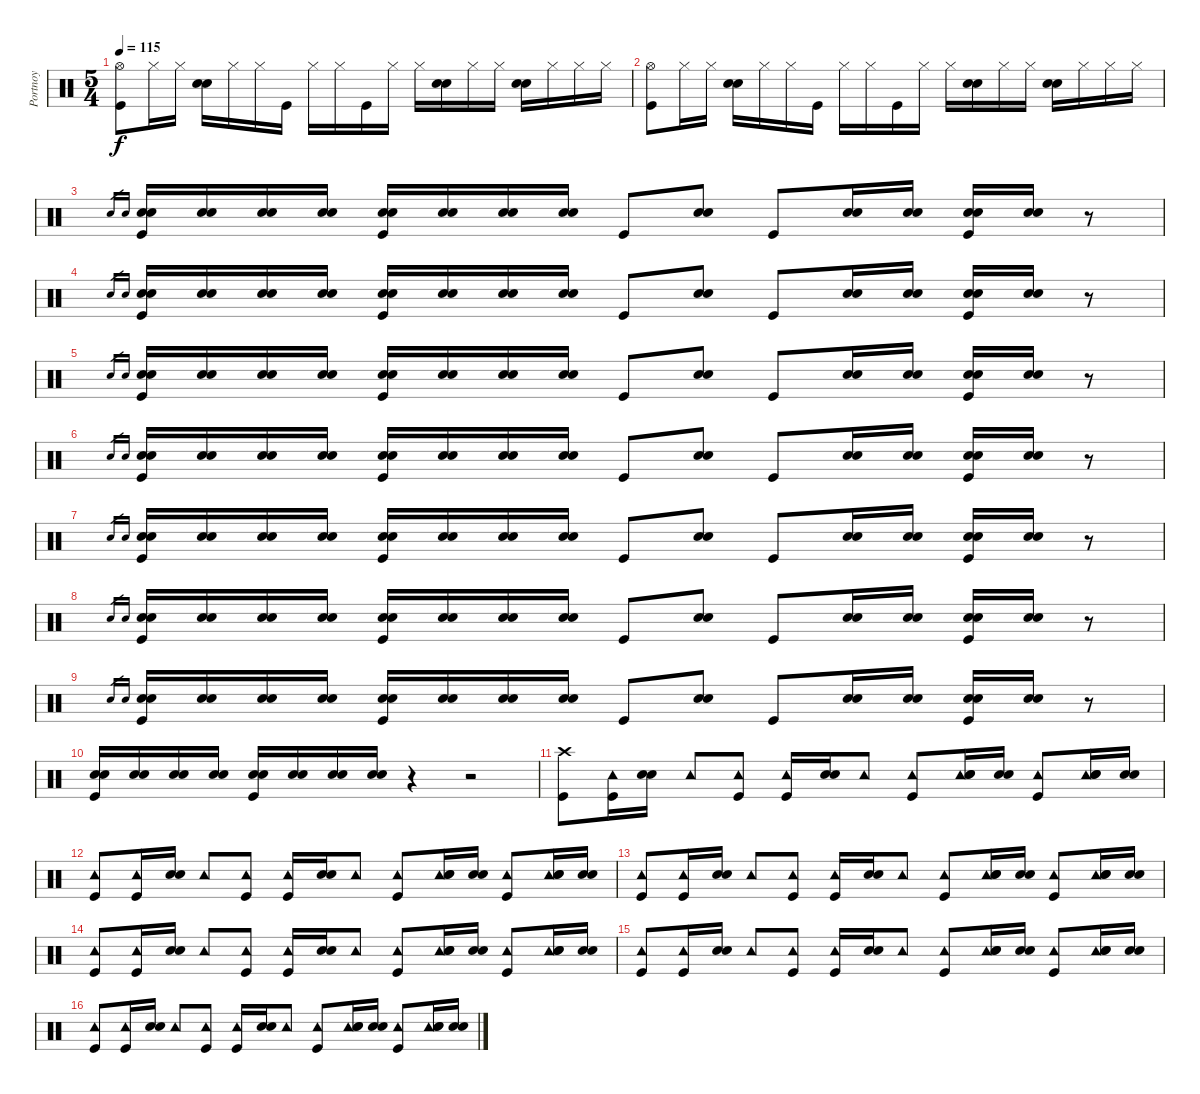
\track ("Portnoy" "Portnoy") {instrument percussion}
\staff {score}
\articulation defaults
\ts (5 4)
\tempo 115
\clef neutral
\ks c
("Hi-Hat (open)" "Kick (hit)").8{dy f} "Hi-Hat (closed)".16 "Hi-Hat (closed)".16 ("Snare (hit) 2" "Electric Snare (hit)").16 "Hi-Hat (closed)".16 "Hi-Hat (closed)".16 "Kick (hit)".16 "Hi-Hat (closed)".16 "Hi-Hat (closed)".16 "Kick (hit)".16 "Hi-Hat (closed)".16 "Hi-Hat (closed)".16 ("Snare (hit) 2" "Electric Snare (hit)").16 "Hi-Hat (closed)".16 "Hi-Hat (closed)".16 ("Snare (hit) 2" "Electric Snare (hit)").16 "Hi-Hat (closed)".16 "Hi-Hat (closed)".16 "Hi-Hat (closed)".16 |
("Hi-Hat (open)" "Kick (hit)").8 "Hi-Hat (closed)".16 "Hi-Hat (closed)".16 ("Snare (hit) 2" "Electric Snare (hit)").16 "Hi-Hat (closed)".16 "Hi-Hat (closed)".16 "Kick (hit)".16 "Hi-Hat (closed)".16 "Hi-Hat (closed)".16 "Kick (hit)".16 "Hi-Hat (closed)".16 "Hi-Hat (closed)".16 ("Snare (hit) 2" "Electric Snare (hit)").16 "Hi-Hat (closed)".16 "Hi-Hat (closed)".16 ("Snare (hit) 2" "Electric Snare (hit)").16 "Hi-Hat (closed)".16 "Hi-Hat (closed)".16 "Hi-Hat (closed)".16 |
"Snare (hit) 2".16{gr} "Electric Snare (hit)".16{gr} ("Snare (hit) 2" "Electric Snare (hit)" "Kick (hit)").16 ("Snare (hit) 2" "Electric Snare (hit)").16 ("Snare (hit) 2" "Electric Snare (hit)").16 ("Snare (hit) 2" "Electric Snare (hit)").16 ("Snare (hit) 2" "Electric Snare (hit)" "Kick (hit)").16 ("Snare (hit) 2" "Electric Snare (hit)").16 ("Snare (hit) 2" "Electric Snare (hit)").16 ("Snare (hit) 2" "Electric Snare (hit)").16 "Kick (hit)".8 ("Snare (hit) 2" "Electric Snare (hit)").8 "Kick (hit)".8 ("Snare (hit) 2" "Electric Snare (hit)").16 ("Snare (hit) 2" "Electric Snare (hit)").16 ("Snare (hit) 2" "Electric Snare (hit)" "Kick (hit)").16 ("Snare (hit) 2" "Electric Snare (hit)").16 r.8 |
"Snare (hit) 2".16{gr} "Electric Snare (hit)".16{gr} ("Snare (hit) 2" "Electric Snare (hit)" "Kick (hit)").16 ("Snare (hit) 2" "Electric Snare (hit)").16 ("Snare (hit) 2" "Electric Snare (hit)").16 ("Snare (hit) 2" "Electric Snare (hit)").16 ("Snare (hit) 2" "Electric Snare (hit)" "Kick (hit)").16 ("Snare (hit) 2" "Electric Snare (hit)").16 ("Snare (hit) 2" "Electric Snare (hit)").16 ("Snare (hit) 2" "Electric Snare (hit)").16 "Kick (hit)".8 ("Snare (hit) 2" "Electric Snare (hit)").8 "Kick (hit)".8 ("Snare (hit) 2" "Electric Snare (hit)").16 ("Snare (hit) 2" "Electric Snare (hit)").16 ("Snare (hit) 2" "Electric Snare (hit)" "Kick (hit)").16 ("Snare (hit) 2" "Electric Snare (hit)").16 r.8 |
"Snare (hit) 2".16{gr} "Electric Snare (hit)".16{gr} ("Snare (hit) 2" "Electric Snare (hit)" "Kick (hit)").16 ("Snare (hit) 2" "Electric Snare (hit)").16 ("Snare (hit) 2" "Electric Snare (hit)").16 ("Snare (hit) 2" "Electric Snare (hit)").16 ("Snare (hit) 2" "Electric Snare (hit)" "Kick (hit)").16 ("Snare (hit) 2" "Electric Snare (hit)").16 ("Snare (hit) 2" "Electric Snare (hit)").16 ("Snare (hit) 2" "Electric Snare (hit)").16 "Kick (hit)".8 ("Snare (hit) 2" "Electric Snare (hit)").8 "Kick (hit)".8 ("Snare (hit) 2" "Electric Snare (hit)").16 ("Snare (hit) 2" "Electric Snare (hit)").16 ("Snare (hit) 2" "Electric Snare (hit)" "Kick (hit)").16 ("Snare (hit) 2" "Electric Snare (hit)").16 r.8 |
"Snare (hit) 2".16{gr} "Electric Snare (hit)".16{gr} ("Snare (hit) 2" "Electric Snare (hit)" "Kick (hit)").16 ("Snare (hit) 2" "Electric Snare (hit)").16 ("Snare (hit) 2" "Electric Snare (hit)").16 ("Snare (hit) 2" "Electric Snare (hit)").16 ("Snare (hit) 2" "Electric Snare (hit)" "Kick (hit)").16 ("Snare (hit) 2" "Electric Snare (hit)").16 ("Snare (hit) 2" "Electric Snare (hit)").16 ("Snare (hit) 2" "Electric Snare (hit)").16 "Kick (hit)".8 ("Snare (hit) 2" "Electric Snare (hit)").8 "Kick (hit)".8 ("Snare (hit) 2" "Electric Snare (hit)").16 ("Snare (hit) 2" "Electric Snare (hit)").16 ("Snare (hit) 2" "Electric Snare (hit)" "Kick (hit)").16 ("Snare (hit) 2" "Electric Snare (hit)").16 r.8 |
"Snare (hit) 2".16{gr} "Electric Snare (hit)".16{gr} ("Snare (hit) 2" "Electric Snare (hit)" "Kick (hit)").16 ("Snare (hit) 2" "Electric Snare (hit)").16 ("Snare (hit) 2" "Electric Snare (hit)").16 ("Snare (hit) 2" "Electric Snare (hit)").16 ("Snare (hit) 2" "Electric Snare (hit)" "Kick (hit)").16 ("Snare (hit) 2" "Electric Snare (hit)").16 ("Snare (hit) 2" "Electric Snare (hit)").16 ("Snare (hit) 2" "Electric Snare (hit)").16 "Kick (hit)".8 ("Snare (hit) 2" "Electric Snare (hit)").8 "Kick (hit)".8 ("Snare (hit) 2" "Electric Snare (hit)").16 ("Snare (hit) 2" "Electric Snare (hit)").16 ("Snare (hit) 2" "Electric Snare (hit)" "Kick (hit)").16 ("Snare (hit) 2" "Electric Snare (hit)").16 r.8 |
"Snare (hit) 2".16{gr} "Electric Snare (hit)".16{gr} ("Snare (hit) 2" "Electric Snare (hit)" "Kick (hit)").16 ("Snare (hit) 2" "Electric Snare (hit)").16 ("Snare (hit) 2" "Electric Snare (hit)").16 ("Snare (hit) 2" "Electric Snare (hit)").16 ("Snare (hit) 2" "Electric Snare (hit)" "Kick (hit)").16 ("Snare (hit) 2" "Electric Snare (hit)").16 ("Snare (hit) 2" "Electric Snare (hit)").16 ("Snare (hit) 2" "Electric Snare (hit)").16 "Kick (hit)".8 ("Snare (hit) 2" "Electric Snare (hit)").8 "Kick (hit)".8 ("Snare (hit) 2" "Electric Snare (hit)").16 ("Snare (hit) 2" "Electric Snare (hit)").16 ("Snare (hit) 2" "Electric Snare (hit)" "Kick (hit)").16 ("Snare (hit) 2" "Electric Snare (hit)").16 r.8 |
"Snare (hit) 2".16{gr} "Electric Snare (hit)".16{gr} ("Snare (hit) 2" "Electric Snare (hit)" "Kick (hit)").16 ("Snare (hit) 2" "Electric Snare (hit)").16 ("Snare (hit) 2" "Electric Snare (hit)").16 ("Snare (hit) 2" "Electric Snare (hit)").16 ("Snare (hit) 2" "Electric Snare (hit)" "Kick (hit)").16 ("Snare (hit) 2" "Electric Snare (hit)").16 ("Snare (hit) 2" "Electric Snare (hit)").16 ("Snare (hit) 2" "Electric Snare (hit)").16 "Kick (hit)".8 ("Snare (hit) 2" "Electric Snare (hit)").8 "Kick (hit)".8 ("Snare (hit) 2" "Electric Snare (hit)").16 ("Snare (hit) 2" "Electric Snare (hit)").16 ("Snare (hit) 2" "Electric Snare (hit)" "Kick (hit)").16 ("Snare (hit) 2" "Electric Snare (hit)").16 r.8 |
("Electric Snare (hit)" "Snare (hit) 2" "Kick (hit)").16 ("Electric Snare (hit)" "Snare (hit) 2").16 ("Electric Snare (hit)" "Snare (hit) 2").16 ("Electric Snare (hit)" "Snare (hit) 2").16 ("Electric Snare (hit)" "Snare (hit) 2" "Kick (hit)").16 ("Electric Snare (hit)" "Snare (hit) 2").16 ("Electric Snare (hit)" "Snare (hit) 2").16 ("Electric Snare (hit)" "Snare (hit) 2").16 r.4 r.2 |
("Crash high (hit)" "Kick (hit)").8 ("Tambourine (hit)" "Kick (hit)").16 ("Snare (hit) 2" "Electric Snare (hit)").16 "Tambourine (hit)".8 ("Tambourine (hit)" "Kick (hit)").8 ("Tambourine (hit)" "Kick (hit)").16 ("Snare (hit) 2" "Electric Snare (hit)").16 "Tambourine (hit)".8 ("Tambourine (hit)" "Kick (hit)").8 ("Tambourine (hit)" "Snare (hit) 2" "Electric Snare (hit)").16 ("Snare (hit) 2" "Electric Snare (hit)").16 ("Tambourine (hit)" "Kick (hit)").8 ("Tambourine (hit)" "Snare (hit) 2" "Electric Snare (hit)").16 ("Snare (hit) 2" "Electric Snare (hit)").16 |
("Tambourine (hit)" "Kick (hit)").8 ("Tambourine (hit)" "Kick (hit)").16 ("Snare (hit) 2" "Electric Snare (hit)").16 "Tambourine (hit)".8 ("Tambourine (hit)" "Kick (hit)").8 ("Tambourine (hit)" "Kick (hit)").16 ("Snare (hit) 2" "Electric Snare (hit)").16 "Tambourine (hit)".8 ("Tambourine (hit)" "Kick (hit)").8 ("Tambourine (hit)" "Snare (hit) 2" "Electric Snare (hit)").16 ("Snare (hit) 2" "Electric Snare (hit)").16 ("Tambourine (hit)" "Kick (hit)").8 ("Tambourine (hit)" "Snare (hit) 2" "Electric Snare (hit)").16 ("Snare (hit) 2" "Electric Snare (hit)").16 |
("Tambourine (hit)" "Kick (hit)").8 ("Tambourine (hit)" "Kick (hit)").16 ("Snare (hit) 2" "Electric Snare (hit)").16 "Tambourine (hit)".8 ("Tambourine (hit)" "Kick (hit)").8 ("Tambourine (hit)" "Kick (hit)").16 ("Snare (hit) 2" "Electric Snare (hit)").16 "Tambourine (hit)".8 ("Tambourine (hit)" "Kick (hit)").8 ("Tambourine (hit)" "Snare (hit) 2" "Electric Snare (hit)").16 ("Snare (hit) 2" "Electric Snare (hit)").16 ("Tambourine (hit)" "Kick (hit)").8 ("Tambourine (hit)" "Snare (hit) 2" "Electric Snare (hit)").16 ("Snare (hit) 2" "Electric Snare (hit)").16 |
("Tambourine (hit)" "Kick (hit)").8 ("Tambourine (hit)" "Kick (hit)").16 ("Snare (hit) 2" "Electric Snare (hit)").16 "Tambourine (hit)".8 ("Tambourine (hit)" "Kick (hit)").8 ("Tambourine (hit)" "Kick (hit)").16 ("Snare (hit) 2" "Electric Snare (hit)").16 "Tambourine (hit)".8 ("Tambourine (hit)" "Kick (hit)").8 ("Tambourine (hit)" "Snare (hit) 2" "Electric Snare (hit)").16 ("Snare (hit) 2" "Electric Snare (hit)").16 ("Tambourine (hit)" "Kick (hit)").8 ("Tambourine (hit)" "Snare (hit) 2" "Electric Snare (hit)").16 ("Snare (hit) 2" "Electric Snare (hit)").16 |
("Tambourine (hit)" "Kick (hit)").8 ("Tambourine (hit)" "Kick (hit)").16 ("Snare (hit) 2" "Electric Snare (hit)").16 "Tambourine (hit)".8 ("Tambourine (hit)" "Kick (hit)").8 ("Tambourine (hit)" "Kick (hit)").16 ("Snare (hit) 2" "Electric Snare (hit)").16 "Tambourine (hit)".8 ("Tambourine (hit)" "Kick (hit)").8 ("Tambourine (hit)" "Snare (hit) 2" "Electric Snare (hit)").16 ("Snare (hit) 2" "Electric Snare (hit)").16 ("Tambourine (hit)" "Kick (hit)").8 ("Tambourine (hit)" "Snare (hit) 2" "Electric Snare (hit)").16 ("Snare (hit) 2" "Electric Snare (hit)").16 |
("Tambourine (hit)" "Kick (hit)").8 ("Tambourine (hit)" "Kick (hit)").16 ("Snare (hit) 2" "Electric Snare (hit)").16 "Tambourine (hit)".8 ("Tambourine (hit)" "Kick (hit)").8 ("Tambourine (hit)" "Kick (hit)").16 ("Snare (hit) 2" "Electric Snare (hit)").16 "Tambourine (hit)".8 ("Tambourine (hit)" "Kick (hit)").8 ("Tambourine (hit)" "Snare (hit) 2" "Electric Snare (hit)").16 ("Snare (hit) 2" "Electric Snare (hit)").16 ("Tambourine (hit)" "Kick (hit)").8 ("Tambourine (hit)" "Snare (hit) 2" "Electric Snare (hit)").16 ("Snare (hit) 2" "Electric Snare (hit)").16
